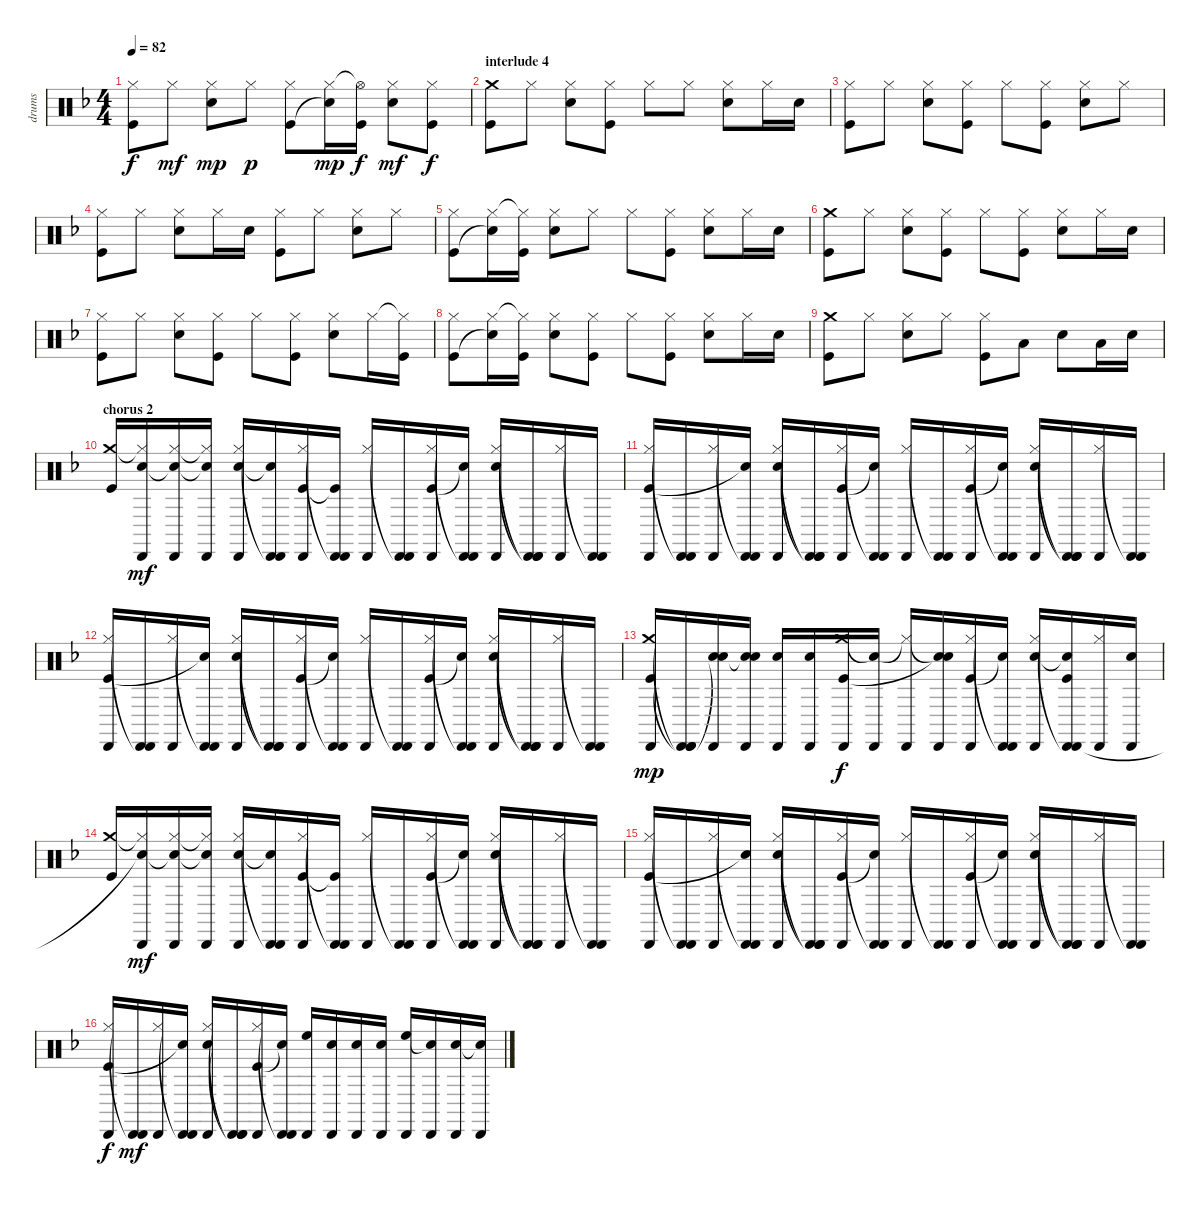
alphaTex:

\track ("drums" "drums") {instrument percussion}
\staff {score}
\articulation defaults
\ts (4 4)
\tempo 82
\clef neutral
\ks f
("Hi-Hat (closed)" "Kick (hit)").8{dy f} "Hi-Hat (closed)".8{dy mf} ("Hi-Hat (closed)" "Snare (hit) 2").8{dy mp} "Hi-Hat (closed)".8{dy p} ("Hi-Hat (closed)" "Kick (hit)").8 ("Hi-Hat (closed)" "Snare (hit)"{t}).16{dy mp} ("Hi-Hat (open)"{t} "Kick (hit)").16{dy f} ("Hi-Hat (closed)" "Snare (hit) 2").8{dy mf} ("Hi-Hat (closed)" "Kick (hit)").8{dy f} |
\section ("" "interlude 4")
("Crash medium (hit)" "Kick (hit)").8 "Hi-Hat (closed)".8 ("Hi-Hat (closed)" "Snare (hit) 2").8 ("Hi-Hat (closed)" "Kick (hit)").8 "Hi-Hat (closed)".8 "Hi-Hat (closed)".8 ("Hi-Hat (closed)" "Snare (hit) 2").8 "Hi-Hat (closed)".16 "Snare (hit) 2".16 |
("Hi-Hat (closed)" "Kick (hit)").8 "Hi-Hat (closed)".8 ("Hi-Hat (closed)" "Snare (hit) 2").8 ("Hi-Hat (closed)" "Kick (hit)").8 "Hi-Hat (closed)".8 ("Hi-Hat (closed)" "Kick (hit)").8 ("Hi-Hat (closed)" "Snare (hit) 2").8 "Hi-Hat (closed)".8 |
("Hi-Hat (closed)" "Kick (hit)").8 "Hi-Hat (closed)".8 ("Hi-Hat (closed)" "Snare (hit) 2").8 "Hi-Hat (closed)".16 "Snare (hit) 2".16 ("Hi-Hat (closed)" "Kick (hit)").8 "Hi-Hat (closed)".8 ("Hi-Hat (closed)" "Snare (hit) 2").8 "Hi-Hat (closed)".8 |
("Hi-Hat (closed)" "Kick (hit)").8 ("Hi-Hat (closed)" "Snare (hit)"{t}).16 ("Hi-Hat (closed)"{t} "Kick (hit)").16 ("Hi-Hat (closed)" "Snare (hit) 2").8 "Hi-Hat (closed)".8 "Hi-Hat (closed)".8 ("Hi-Hat (closed)" "Kick (hit)").8 ("Hi-Hat (closed)" "Snare (hit) 2").8 "Hi-Hat (closed)".16 "Snare (hit) 2".16 |
("Crash medium (hit)" "Kick (hit)").8 "Hi-Hat (closed)".8 ("Hi-Hat (closed)" "Snare (hit) 2").8 ("Hi-Hat (closed)" "Kick (hit)").8 "Hi-Hat (closed)".8 ("Hi-Hat (closed)" "Kick (hit)").8 ("Hi-Hat (closed)" "Snare (hit) 2").8 "Hi-Hat (closed)".16 "Snare (hit) 2".16 |
("Hi-Hat (closed)" "Kick (hit)").8 "Hi-Hat (closed)".8 ("Hi-Hat (closed)" "Snare (hit) 2").8 ("Hi-Hat (closed)" "Kick (hit)").8 "Hi-Hat (closed)".8 ("Hi-Hat (closed)" "Kick (hit)").8 ("Hi-Hat (closed)" "Snare (hit) 2").8 "Hi-Hat (closed)".16 ("Hi-Hat (closed)"{t} "Kick (hit)").16 |
("Hi-Hat (closed)" "Kick (hit)").8 ("Hi-Hat (closed)" "Snare (hit)"{t}).16 ("Hi-Hat (closed)"{t} "Kick (hit)").16 ("Hi-Hat (closed)" "Snare (hit) 2").8 ("Hi-Hat (closed)" "Kick (hit)").8 "Hi-Hat (closed)".8 ("Hi-Hat (closed)" "Kick (hit)").8 ("Hi-Hat (closed)" "Snare (hit) 2").8 "Hi-Hat (closed)".16 "Snare (hit) 2".16 |
("Crash medium (hit)" "Kick (hit)").8 "Hi-Hat (closed)".8 ("Hi-Hat (closed)" "Snare (hit) 2").8 "Hi-Hat (closed)".8 ("Hi-Hat (closed)" "Kick (hit)").8 "Low Tom (hit)".8 "Snare (hit) 2".8 "Low Tom (hit)".16 "Snare (hit) 2".16 |
\section ("" "chorus 2")
("Crash medium (hit)" "Kick (hit)").16{volume 15} ("Hi-Hat (closed)"{t} "Cabasa (hit)" "Snare (hit)").16{dy mf} ("Hi-Hat (closed)" "Cabasa (hit)" "Snare (hit)"{t}).16 ("Hi-Hat (closed)"{t} "Cabasa (hit)" "Snare (hit)"{t}).16 ("Hi-Hat (closed)" "Snare (hit) 2" "Cabasa (hit)").16 ("Cabasa (hit)"{t} "Snare (hit)"{t} "Cabasa (hit)").16 ("Hi-Hat (closed)" "Cabasa (hit)" "Kick (hit)").16 ("Cabasa (hit)"{t} "Cabasa (hit)" "Kick (hit)"{t}).16 ("Hi-Hat (closed)" "Cabasa (hit)").16 ("Cabasa (hit)"{t} "Cabasa (hit)").16 ("Hi-Hat (closed)" "Cabasa (hit)" "Kick (hit)").16 ("Cabasa (hit)"{t} "Cabasa (hit)" "Snare (hit)"{t}).16 ("Hi-Hat (closed)" "Snare (hit) 2" "Cabasa (hit)").16 ("Cabasa (hit)"{t} "Cabasa (hit)"{t} "Cabasa (hit)").16 ("Hi-Hat (closed)" "Cabasa (hit)").16 ("Cabasa (hit)"{t} "Cabasa (hit)").16 |
("Hi-Hat (closed)" "Cabasa (hit)" "Kick (hit)").16 ("Cabasa (hit)"{t} "Cabasa (hit)").16 ("Hi-Hat (closed)" "Cabasa (hit)").16 ("Cabasa (hit)"{t} "Cabasa (hit)" "Snare (hit)"{t}).16 ("Hi-Hat (closed)" "Snare (hit) 2" "Cabasa (hit)").16 ("Cabasa (hit)"{t} "Cabasa (hit)"{t} "Cabasa (hit)").16 ("Hi-Hat (closed)" "Cabasa (hit)" "Kick (hit)").16 ("Cabasa (hit)"{t} "Cabasa (hit)" "Snare (hit)"{t}).16 ("Hi-Hat (closed)" "Cabasa (hit)").16 ("Cabasa (hit)"{t} "Cabasa (hit)").16 ("Hi-Hat (closed)" "Cabasa (hit)" "Kick (hit)").16 ("Cabasa (hit)"{t} "Cabasa (hit)" "Snare (hit)"{t}).16 ("Hi-Hat (closed)" "Snare (hit) 2" "Cabasa (hit)").16 ("Cabasa (hit)"{t} "Cabasa (hit)"{t} "Cabasa (hit)").16 ("Hi-Hat (closed)" "Cabasa (hit)").16 ("Cabasa (hit)"{t} "Cabasa (hit)").16 |
("Hi-Hat (closed)" "Cabasa (hit)" "Kick (hit)").16 ("Cabasa (hit)"{t} "Cabasa (hit)").16 ("Hi-Hat (closed)" "Cabasa (hit)").16 ("Cabasa (hit)"{t} "Cabasa (hit)" "Snare (hit)"{t}).16 ("Hi-Hat (closed)" "Snare (hit) 2" "Cabasa (hit)").16 ("Cabasa (hit)"{t} "Cabasa (hit)"{t} "Cabasa (hit)").16 ("Hi-Hat (closed)" "Cabasa (hit)" "Kick (hit)").16 ("Cabasa (hit)"{t} "Cabasa (hit)" "Snare (hit)"{t}).16 ("Hi-Hat (closed)" "Cabasa (hit)").16 ("Cabasa (hit)"{t} "Cabasa (hit)").16 ("Hi-Hat (closed)" "Cabasa (hit)" "Kick (hit)").16 ("Cabasa (hit)"{t} "Cabasa (hit)" "Snare (hit)"{t}).16 ("Hi-Hat (closed)" "Snare (hit) 2" "Cabasa (hit)").16 ("Cabasa (hit)"{t} "Cabasa (hit)"{t} "Cabasa (hit)").16 ("Hi-Hat (closed)" "Cabasa (hit)").16 ("Cabasa (hit)"{t} "Cabasa (hit)").16 |
("Crash medium (hit)" "Cabasa (hit)" "Kick (hit)").16{dy mp} ("Cabasa (hit)"{t} "Cabasa (hit)" "Cabasa (hit)"{t}).16 ("Snare (hit) 2" "Cabasa (hit)" "Snare (hit)"{t}).16 ("Snare (hit) 2" "Cabasa (hit)" "Snare (hit)"{t}).16 ("Snare (hit) 2" "Cabasa (hit)").16 ("Snare (hit) 2" "Cabasa (hit)").16 ("Crash medium (hit)" "Cabasa (hit)" "Kick (hit)").16{dy f} ("Snare (hit)"{t} "Cabasa (hit)").16 ("Hi-Hat (closed)"{t} "Cabasa (hit)").16 ("Snare (hit)"{t} "Cabasa (hit)" "Snare (hit)"{t}).16 ("Hi-Hat (closed)" "Cabasa (hit)" "Kick (hit)").16 ("Cabasa (hit)"{t} "Cabasa (hit)" "Snare (hit)"{t}).16 ("Hi-Hat (closed)" "Snare (hit) 2" "Cabasa (hit)").16 ("Cabasa (hit)"{t} "Snare (hit)"{t} "Cabasa (hit)" "Kick (hit)").16 ("Hi-Hat (closed)" "Cabasa (hit)").16 ("Snare (hit) 2" "Cabasa (hit)").16 |
("Crash medium (hit)" "Kick (hit)").16 ("Hi-Hat (closed)"{t} "Cabasa (hit)" "Snare (hit)"{t}).16{dy mf} ("Hi-Hat (closed)" "Cabasa (hit)" "Snare (hit)"{t}).16 ("Hi-Hat (closed)"{t} "Cabasa (hit)" "Snare (hit)"{t}).16 ("Hi-Hat (closed)" "Snare (hit) 2" "Cabasa (hit)").16 ("Cabasa (hit)"{t} "Snare (hit)"{t} "Cabasa (hit)").16 ("Hi-Hat (closed)" "Cabasa (hit)" "Kick (hit)").16 ("Cabasa (hit)"{t} "Cabasa (hit)" "Kick (hit)"{t}).16 ("Hi-Hat (closed)" "Cabasa (hit)").16 ("Cabasa (hit)"{t} "Cabasa (hit)").16 ("Hi-Hat (closed)" "Cabasa (hit)" "Kick (hit)").16 ("Cabasa (hit)"{t} "Cabasa (hit)" "Snare (hit)"{t}).16 ("Hi-Hat (closed)" "Snare (hit) 2" "Cabasa (hit)").16 ("Cabasa (hit)"{t} "Cabasa (hit)"{t} "Cabasa (hit)").16 ("Hi-Hat (closed)" "Cabasa (hit)").16 ("Cabasa (hit)"{t} "Cabasa (hit)").16 |
("Hi-Hat (closed)" "Cabasa (hit)" "Kick (hit)").16 ("Cabasa (hit)"{t} "Cabasa (hit)").16 ("Hi-Hat (closed)" "Cabasa (hit)").16 ("Cabasa (hit)"{t} "Cabasa (hit)" "Snare (hit)"{t}).16 ("Hi-Hat (closed)" "Snare (hit) 2" "Cabasa (hit)").16 ("Cabasa (hit)"{t} "Cabasa (hit)"{t} "Cabasa (hit)").16 ("Hi-Hat (closed)" "Cabasa (hit)" "Kick (hit)").16 ("Cabasa (hit)"{t} "Cabasa (hit)" "Snare (hit)"{t}).16 ("Hi-Hat (closed)" "Cabasa (hit)").16 ("Cabasa (hit)"{t} "Cabasa (hit)").16 ("Hi-Hat (closed)" "Cabasa (hit)" "Kick (hit)").16 ("Cabasa (hit)"{t} "Cabasa (hit)" "Snare (hit)"{t}).16 ("Hi-Hat (closed)" "Snare (hit) 2" "Cabasa (hit)").16 ("Cabasa (hit)"{t} "Cabasa (hit)"{t} "Cabasa (hit)").16 ("Hi-Hat (closed)" "Cabasa (hit)").16 ("Cabasa (hit)"{t} "Cabasa (hit)").16 |
("Hi-Hat (closed)" "Cabasa (hit)" "Kick (hit)").16{dy f} ("Cabasa (hit)"{t} "Cabasa (hit)").16{dy mf} ("Hi-Hat (closed)" "Cabasa (hit)").16 ("Cabasa (hit)"{t} "Cabasa (hit)" "Snare (hit)"{t}).16 ("Hi-Hat (closed)" "Snare (hit) 2" "Cabasa (hit)").16 ("Cabasa (hit)"{t} "Cabasa (hit)"{t} "Cabasa (hit)").16 ("Hi-Hat (closed)" "Cabasa (hit)" "Kick (hit)").16 ("Cabasa (hit)"{t} "Cabasa (hit)" "Snare (hit)"{t}).16 ("High Floor Tom (hit)" "Cabasa (hit)").16 ("Snare (hit) 2" "Cabasa (hit)").16 ("Snare (hit) 2" "Cabasa (hit)").16 ("Snare (hit) 2" "Cabasa (hit)").16 ("High Floor Tom (hit)" "Cabasa (hit)").16 ("Snare (hit)"{t} "Cabasa (hit)").16 ("Snare (hit) 2" "Cabasa (hit)").16 ("Snare (hit)"{t} "Cabasa (hit)").16
